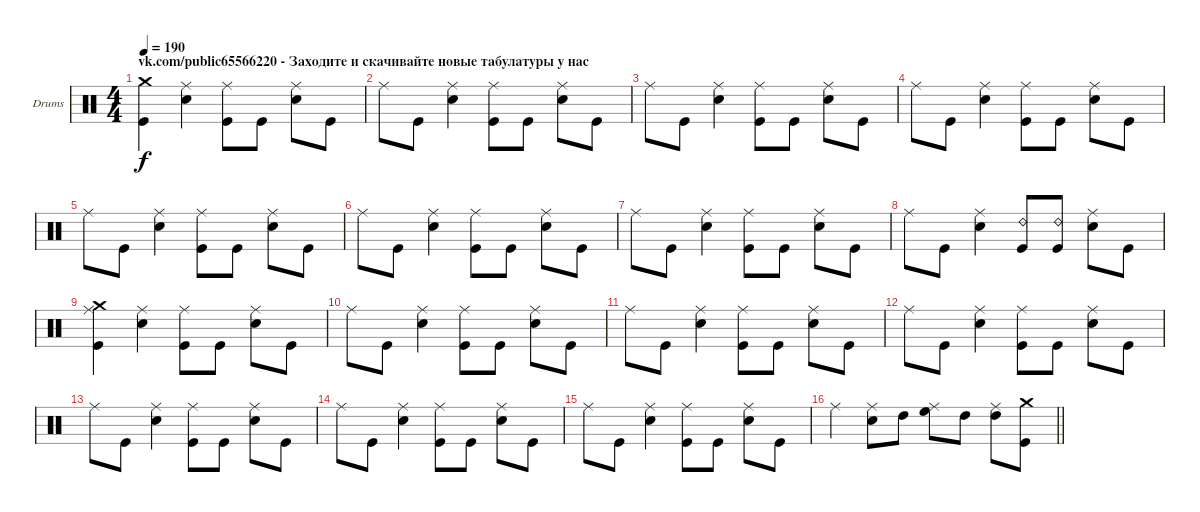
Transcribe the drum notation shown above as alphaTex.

\bracketExtendMode groupsimilarinstruments
\firstSystemTrackNameOrientation horizontal
\otherSystemsTrackNameOrientation horizontal
\track ("Максим Удалов" "Drums") {instrument percussion}
\staff {score}
\articulation defaults
\ts (4 4)
\beaming (8 2 2 2 2)
\section ("" "vk.com/public65566220 - Заходите и скачивайте новые табулатуры у нас")
\tempo 190
\clef neutral
\ks c
("Kick (hit)" "Crash medium (hit)").4{dy f} ("Snare (hit) 2" "Ride (middle)").4 ("Kick (hit)" "Ride (middle)").8 "Kick (hit)".8 ("Snare (hit) 2" "Ride (middle)").8 "Kick (hit)".8 |
"Ride (middle)".8 "Kick (hit)".8 ("Snare (hit) 2" "Ride (middle)").4 ("Kick (hit)" "Ride (middle)").8 "Kick (hit)".8 ("Snare (hit) 2" "Ride (middle)").8 "Kick (hit)".8 |
"Ride (middle)".8 "Kick (hit)".8 ("Snare (hit) 2" "Ride (middle)").4 ("Kick (hit)" "Ride (middle)").8 "Kick (hit)".8 ("Snare (hit) 2" "Ride (middle)").8 "Kick (hit)".8 |
"Ride (middle)".8 "Kick (hit)".8 ("Snare (hit) 2" "Ride (middle)").4 ("Kick (hit)" "Ride (middle)").8 "Kick (hit)".8 ("Snare (hit) 2" "Ride (middle)").8 "Kick (hit)".8 |
"Ride (middle)".8 "Kick (hit)".8 ("Snare (hit) 2" "Ride (middle)").4 ("Kick (hit)" "Ride (middle)").8 "Kick (hit)".8 ("Snare (hit) 2" "Ride (middle)").8 "Kick (hit)".8 |
"Ride (middle)".8 "Kick (hit)".8 ("Snare (hit) 2" "Ride (middle)").4 ("Kick (hit)" "Ride (middle)").8 "Kick (hit)".8 ("Snare (hit) 2" "Ride (middle)").8 "Kick (hit)".8 |
"Ride (middle)".8 "Kick (hit)".8 ("Snare (hit) 2" "Ride (middle)").4 ("Kick (hit)" "Ride (middle)").8 "Kick (hit)".8 ("Snare (hit) 2" "Ride (middle)").8 "Kick (hit)".8 |
"Ride (middle)".8 "Kick (hit)".8 ("Snare (hit) 2" "Ride (middle)").4 ("Kick (hit)" "Ride (bell) 2").8 ("Kick (hit)" "Ride (bell) 2").8 ("Snare (hit) 2" "Ride (middle)").8 "Kick (hit)".8 |
("Kick (hit)" "Crash medium (hit)" "Ride (middle)").4 ("Snare (hit) 2" "Ride (middle)").4 ("Kick (hit)" "Ride (middle)").8 "Kick (hit)".8 ("Snare (hit) 2" "Ride (middle)").8 "Kick (hit)".8 |
"Ride (middle)".8 "Kick (hit)".8 ("Snare (hit) 2" "Ride (middle)").4 ("Kick (hit)" "Ride (middle)").8 "Kick (hit)".8 ("Snare (hit) 2" "Ride (middle)").8 "Kick (hit)".8 |
"Ride (middle)".8 "Kick (hit)".8 ("Snare (hit) 2" "Ride (middle)").4 ("Kick (hit)" "Ride (middle)").8 "Kick (hit)".8 ("Snare (hit) 2" "Ride (middle)").8 "Kick (hit)".8 |
"Ride (middle)".8 "Kick (hit)".8 ("Snare (hit) 2" "Ride (middle)").4 ("Kick (hit)" "Ride (middle)").8 "Kick (hit)".8 ("Snare (hit) 2" "Ride (middle)").8 "Kick (hit)".8 |
"Ride (middle)".8 "Kick (hit)".8 ("Snare (hit) 2" "Ride (middle)").4 ("Kick (hit)" "Ride (middle)").8 "Kick (hit)".8 ("Snare (hit) 2" "Ride (middle)").8 "Kick (hit)".8 |
"Ride (middle)".8 "Kick (hit)".8 ("Snare (hit) 2" "Ride (middle)").4 ("Kick (hit)" "Ride (middle)").8 "Kick (hit)".8 ("Snare (hit) 2" "Ride (middle)").8 "Kick (hit)".8 |
"Ride (middle)".8 "Kick (hit)".8 ("Snare (hit) 2" "Ride (middle)").4 ("Kick (hit)" "Ride (middle)").8 "Kick (hit)".8 ("Snare (hit) 2" "Ride (middle)").8 "Kick (hit)".8 |
\barLineRight lightlight "Ride (middle)".4
("Snare (hit) 2" "Ride (middle)").8 "High Tom (hit)".8 ("High Floor Tom (hit)" "Ride (middle)").8 "High Tom (hit)".8 ("High Tom (hit)" "Ride (middle)").8 ("Kick (hit)" "Crash medium (hit)").8
